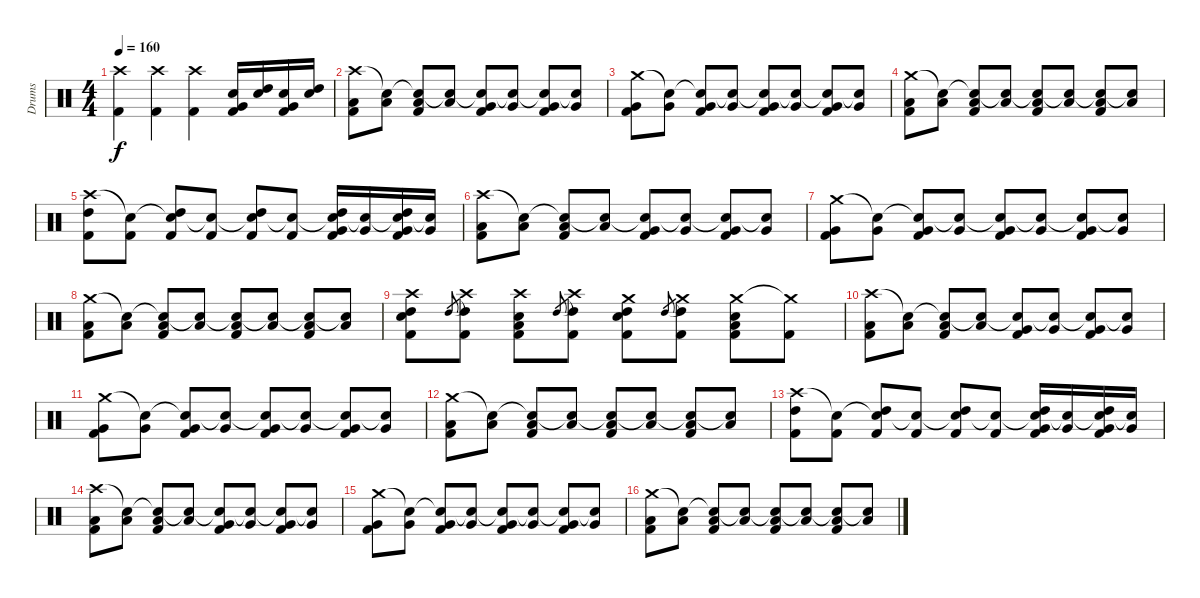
\track ("Drums" "Drums") {instrument percussion}
\staff {score}
\articulation defaults
\ts (4 4)
\tempo 160
\clef neutral
\ks c
("Crash high (hit)" "Kick (hit) 2").4{dy f} ("Crash high (hit)" "Kick (hit) 2").4 ("Crash high (hit)" "Kick (hit) 2").4 ("Very Low Tom (hit)" "Kick (hit) 2" "Snare (hit) 2").16 ("High Tom (hit)" "Snare (hit) 2").16 ("Very Low Tom (hit)" "Kick (hit) 2" "Snare (hit) 2").16 ("High Tom (hit)" "Snare (hit) 2").16 |
("Crash high (hit)" "Low Floor Tom (hit)" "Kick (hit) 2").8 ("Snare (hit)"{t} "Low Floor Tom (hit)").8 ("Snare (hit)"{t} "Low Floor Tom (hit)" "Kick (hit) 2").8 ("Snare (hit)"{t} "Low Floor Tom (hit)").8 ("Snare (hit)"{t} "Very Low Tom (hit)" "Kick (hit) 2").8 ("Snare (hit)"{t} "Very Low Tom (hit)").8 ("Snare (hit)"{t} "Very Low Tom (hit)" "Kick (hit) 2").8 ("Snare (hit)"{t} "Very Low Tom (hit)").8 |
("Crash medium (hit)" "Kick (hit) 2" "Very Low Tom (hit)").8 ("Snare (hit)"{t} "Very Low Tom (hit)").8 ("Snare (hit)"{t} "Kick (hit) 2" "Very Low Tom (hit)").8 ("Snare (hit)"{t} "Very Low Tom (hit)").8 ("Snare (hit)"{t} "Kick (hit) 2" "Very Low Tom (hit)").8 ("Snare (hit)"{t} "Very Low Tom (hit)").8 ("Snare (hit)"{t} "Kick (hit) 2" "Very Low Tom (hit)").8 ("Snare (hit)"{t} "Very Low Tom (hit)").8 |
("Crash medium (hit)" "Kick (hit) 2" "Low Floor Tom (hit)").8 ("Snare (hit)"{t} "Low Floor Tom (hit)").8 ("Snare (hit)"{t} "Kick (hit) 2" "Low Floor Tom (hit)").8 ("Snare (hit)"{t} "Low Floor Tom (hit)").8 ("Snare (hit)"{t} "Kick (hit) 2" "Low Floor Tom (hit)").8 ("Snare (hit)"{t} "Low Floor Tom (hit)").8 ("Snare (hit)"{t} "Kick (hit) 2" "Low Floor Tom (hit)").8 ("Snare (hit)"{t} "Low Floor Tom (hit)").8 |
("Crash high (hit)" "High Tom (hit)" "Kick (hit) 2").8 ("Snare (hit)"{t} "Kick (hit) 2").8 ("Snare (hit)"{t} "High Tom (hit)" "Kick (hit) 2").8 ("Snare (hit)"{t} "Kick (hit) 2").8 ("Snare (hit)"{t} "High Tom (hit)" "Kick (hit) 2").8 ("Snare (hit)"{t} "Kick (hit) 2").8 ("Snare (hit)"{t} "High Tom (hit)" "Very Low Tom (hit)" "Kick (hit) 2").16 ("Snare (hit)"{t} "Very Low Tom (hit)").16 ("Snare (hit)"{t} "High Tom (hit)" "Very Low Tom (hit)" "Kick (hit) 2").16 ("Snare (hit)"{t} "Very Low Tom (hit)").16 |
("Crash high (hit)" "Low Floor Tom (hit)" "Kick (hit) 2").8 ("Snare (hit)"{t} "Low Floor Tom (hit)").8 ("Snare (hit)"{t} "Low Floor Tom (hit)" "Kick (hit) 2").8 ("Snare (hit)"{t} "Low Floor Tom (hit)").8 ("Snare (hit)"{t} "Very Low Tom (hit)" "Kick (hit) 2").8 ("Snare (hit)"{t} "Very Low Tom (hit)").8 ("Snare (hit)"{t} "Very Low Tom (hit)" "Kick (hit) 2").8 ("Snare (hit)"{t} "Very Low Tom (hit)").8 |
("Crash medium (hit)" "Kick (hit) 2" "Very Low Tom (hit)").8 ("Snare (hit)"{t} "Very Low Tom (hit)").8 ("Snare (hit)"{t} "Kick (hit) 2" "Very Low Tom (hit)").8 ("Snare (hit)"{t} "Very Low Tom (hit)").8 ("Snare (hit)"{t} "Kick (hit) 2" "Very Low Tom (hit)").8 ("Snare (hit)"{t} "Very Low Tom (hit)").8 ("Snare (hit)"{t} "Kick (hit) 2" "Very Low Tom (hit)").8 ("Snare (hit)"{t} "Very Low Tom (hit)").8 |
("Crash medium (hit)" "Kick (hit) 2" "Low Floor Tom (hit)").8 ("Snare (hit)"{t} "Low Floor Tom (hit)").8 ("Snare (hit)"{t} "Kick (hit) 2" "Low Floor Tom (hit)").8 ("Snare (hit)"{t} "Low Floor Tom (hit)").8 ("Snare (hit)"{t} "Kick (hit) 2" "Low Floor Tom (hit)").8 ("Snare (hit)"{t} "Low Floor Tom (hit)").8 ("Snare (hit)"{t} "Kick (hit) 2" "Low Floor Tom (hit)").8 ("Snare (hit)"{t} "Low Floor Tom (hit)").8 |
("Crash high (hit)" "High Tom (hit)" "Snare (hit) 2" "Kick (hit) 2").8 "High Tom (hit)".8{gr} ("Crash high (hit)"{t} "High Tom (hit)" "Kick (hit) 2").8 ("Crash high (hit)" "Low Tom (hit)" "Snare (hit) 2" "Kick (hit) 2").8 "High Tom (hit)".8{gr} ("Crash high (hit)"{t} "High Tom (hit)" "Kick (hit) 2").8 ("Crash medium (hit)" "High Tom (hit)" "Snare (hit) 2" "Kick (hit) 2").8 "High Tom (hit)".8{gr} ("Crash medium (hit)"{t} "High Tom (hit)" "Kick (hit) 2").8 ("Crash medium (hit)" "Low Tom (hit)" "Snare (hit) 2" "Kick (hit) 2").8 ("Crash medium (hit)"{t} "Kick (hit) 2").8 |
("Crash high (hit)" "Low Floor Tom (hit)" "Kick (hit) 2").8 ("Snare (hit)"{t} "Low Floor Tom (hit)").8 ("Snare (hit)"{t} "Low Floor Tom (hit)" "Kick (hit) 2").8 ("Snare (hit)"{t} "Low Floor Tom (hit)").8 ("Snare (hit)"{t} "Very Low Tom (hit)" "Kick (hit) 2").8 ("Snare (hit)"{t} "Very Low Tom (hit)").8 ("Snare (hit)"{t} "Very Low Tom (hit)" "Kick (hit) 2").8 ("Snare (hit)"{t} "Very Low Tom (hit)").8 |
("Crash medium (hit)" "Kick (hit) 2" "Very Low Tom (hit)").8 ("Snare (hit)"{t} "Very Low Tom (hit)").8 ("Snare (hit)"{t} "Kick (hit) 2" "Very Low Tom (hit)").8 ("Snare (hit)"{t} "Very Low Tom (hit)").8 ("Snare (hit)"{t} "Kick (hit) 2" "Very Low Tom (hit)").8 ("Snare (hit)"{t} "Very Low Tom (hit)").8 ("Snare (hit)"{t} "Kick (hit) 2" "Very Low Tom (hit)").8 ("Snare (hit)"{t} "Very Low Tom (hit)").8 |
("Crash medium (hit)" "Kick (hit) 2" "Low Floor Tom (hit)").8 ("Snare (hit)"{t} "Low Floor Tom (hit)").8 ("Snare (hit)"{t} "Kick (hit) 2" "Low Floor Tom (hit)").8 ("Snare (hit)"{t} "Low Floor Tom (hit)").8 ("Snare (hit)"{t} "Kick (hit) 2" "Low Floor Tom (hit)").8 ("Snare (hit)"{t} "Low Floor Tom (hit)").8 ("Snare (hit)"{t} "Kick (hit) 2" "Low Floor Tom (hit)").8 ("Snare (hit)"{t} "Low Floor Tom (hit)").8 |
("Crash high (hit)" "High Tom (hit)" "Kick (hit) 2").8 ("Snare (hit)"{t} "Kick (hit) 2").8 ("Snare (hit)"{t} "High Tom (hit)" "Kick (hit) 2").8 ("Snare (hit)"{t} "Kick (hit) 2").8 ("Snare (hit)"{t} "High Tom (hit)" "Kick (hit) 2").8 ("Snare (hit)"{t} "Kick (hit) 2").8 ("Snare (hit)"{t} "High Tom (hit)" "Very Low Tom (hit)" "Kick (hit) 2").16 ("Snare (hit)"{t} "Very Low Tom (hit)").16 ("Snare (hit)"{t} "High Tom (hit)" "Very Low Tom (hit)" "Kick (hit) 2").16 ("Snare (hit)"{t} "Very Low Tom (hit)").16 |
("Crash high (hit)" "Low Floor Tom (hit)" "Kick (hit) 2").8 ("Snare (hit)"{t} "Low Floor Tom (hit)").8 ("Snare (hit)"{t} "Low Floor Tom (hit)" "Kick (hit) 2").8 ("Snare (hit)"{t} "Low Floor Tom (hit)").8 ("Snare (hit)"{t} "Very Low Tom (hit)" "Kick (hit) 2").8 ("Snare (hit)"{t} "Very Low Tom (hit)").8 ("Snare (hit)"{t} "Very Low Tom (hit)" "Kick (hit) 2").8 ("Snare (hit)"{t} "Very Low Tom (hit)").8 |
("Crash medium (hit)" "Kick (hit) 2" "Very Low Tom (hit)").8 ("Snare (hit)"{t} "Very Low Tom (hit)").8 ("Snare (hit)"{t} "Kick (hit) 2" "Very Low Tom (hit)").8 ("Snare (hit)"{t} "Very Low Tom (hit)").8 ("Snare (hit)"{t} "Kick (hit) 2" "Very Low Tom (hit)").8 ("Snare (hit)"{t} "Very Low Tom (hit)").8 ("Snare (hit)"{t} "Kick (hit) 2" "Very Low Tom (hit)").8 ("Snare (hit)"{t} "Very Low Tom (hit)").8 |
("Crash medium (hit)" "Kick (hit) 2" "Low Floor Tom (hit)").8 ("Snare (hit)"{t} "Low Floor Tom (hit)").8 ("Snare (hit)"{t} "Kick (hit) 2" "Low Floor Tom (hit)").8 ("Snare (hit)"{t} "Low Floor Tom (hit)").8 ("Snare (hit)"{t} "Kick (hit) 2" "Low Floor Tom (hit)").8 ("Snare (hit)"{t} "Low Floor Tom (hit)").8 ("Snare (hit)"{t} "Kick (hit) 2" "Low Floor Tom (hit)").8 ("Snare (hit)"{t} "Low Floor Tom (hit)").8
